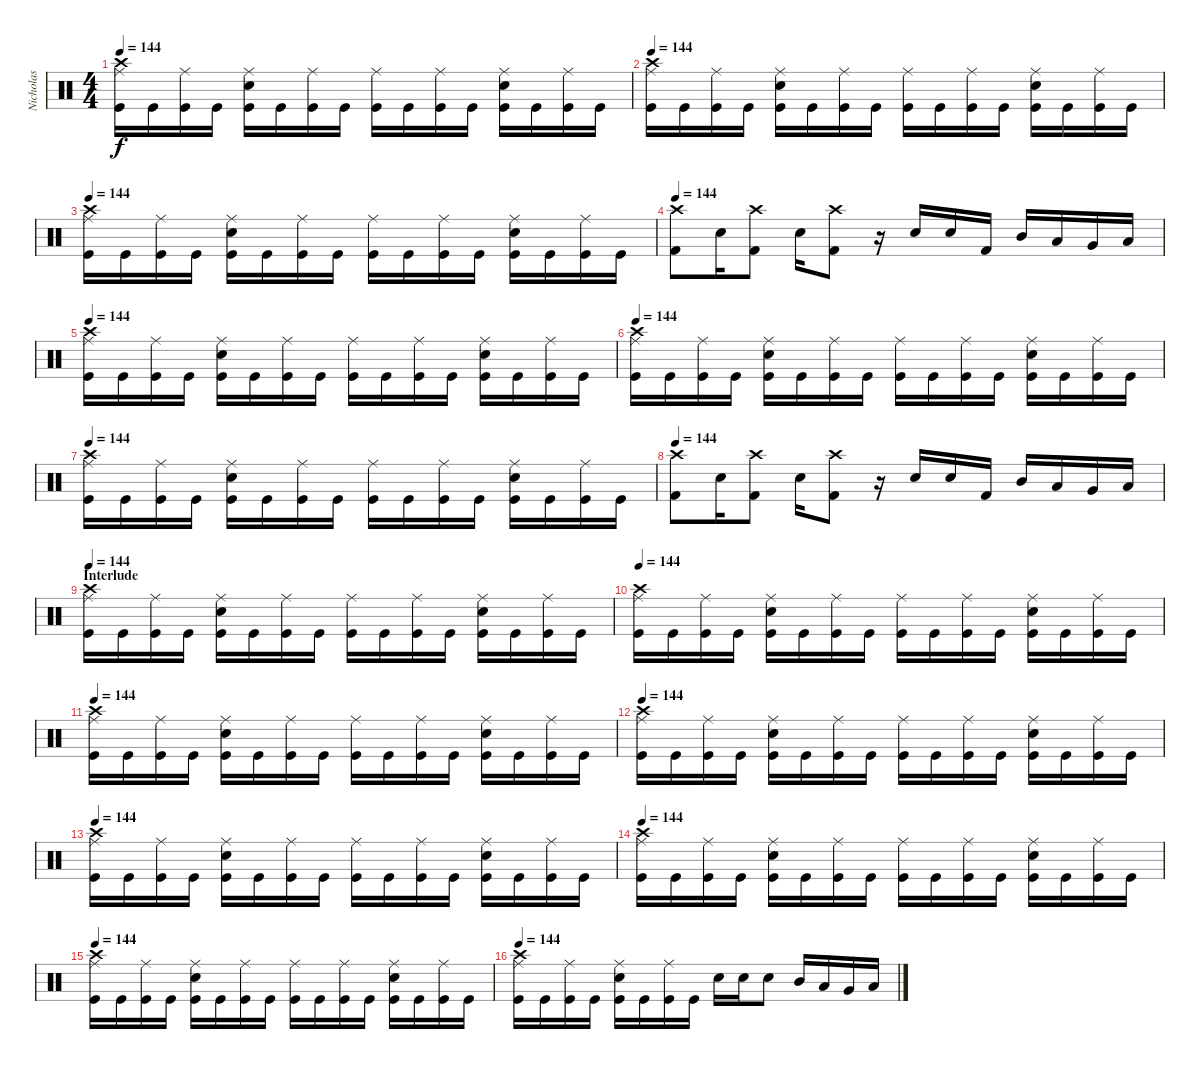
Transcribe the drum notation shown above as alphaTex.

\track ("Nicholas" "Nicholas") {instrument percussion}
\staff {score}
\articulation defaults
\ts (4 4)
\tempo 144
\clef neutral
\ks c
("Kick (hit)" "Ride (middle)" "Crash high (hit)").16{dy f} "Kick (hit)".16 ("Kick (hit)" "Ride (middle)").16 "Kick (hit)".16 ("Kick (hit)" "Snare (hit) 2" "Ride (middle)").16 "Kick (hit)".16 ("Kick (hit)" "Ride (middle)").16 "Kick (hit)".16 ("Kick (hit)" "Ride (middle)").16 "Kick (hit)".16 ("Kick (hit)" "Ride (middle)").16 "Kick (hit)".16 ("Kick (hit)" "Snare (hit) 2" "Ride (middle)").16 "Kick (hit)".16 ("Kick (hit)" "Ride (middle)").16 "Kick (hit)".16 |
\tempo 144
("Kick (hit)" "Ride (middle)" "Crash high (hit)").16 "Kick (hit)".16 ("Kick (hit)" "Ride (middle)").16 "Kick (hit)".16 ("Kick (hit)" "Snare (hit) 2" "Ride (middle)").16 "Kick (hit)".16 ("Kick (hit)" "Ride (middle)").16 "Kick (hit)".16 ("Kick (hit)" "Ride (middle)").16 "Kick (hit)".16 ("Kick (hit)" "Ride (middle)").16 "Kick (hit)".16 ("Kick (hit)" "Snare (hit) 2" "Ride (middle)").16 "Kick (hit)".16 ("Kick (hit)" "Ride (middle)").16 "Kick (hit)".16 |
\tempo 144
("Kick (hit)" "Ride (middle)" "Crash high (hit)").16 "Kick (hit)".16 ("Kick (hit)" "Ride (middle)").16 "Kick (hit)".16 ("Kick (hit)" "Snare (hit) 2" "Ride (middle)").16 "Kick (hit)".16 ("Kick (hit)" "Ride (middle)").16 "Kick (hit)".16 ("Kick (hit)" "Ride (middle)").16 "Kick (hit)".16 ("Kick (hit)" "Ride (middle)").16 "Kick (hit)".16 ("Kick (hit)" "Snare (hit) 2" "Ride (middle)").16 "Kick (hit)".16 ("Kick (hit)" "Ride (middle)").16 "Kick (hit)".16 |
\tempo 144
("Kick (hit) 2" "Crash high (hit)").8 "Snare (hit) 2".16 ("Kick (hit) 2" "Crash high (hit)").8 "Snare (hit) 2".16 ("Kick (hit) 2" "Crash high (hit)").8 r.16 "Snare (hit) 2".16 "Snare (hit) 2".16 "Kick (hit) 2".16 "Mid Tom (hit)".16 "Low Tom (hit)".16 "Very Low Tom (hit)".16 "Low Floor Tom (hit)".16 |
\tempo 144
("Kick (hit)" "Ride (middle)" "Crash high (hit)").16 "Kick (hit)".16 ("Kick (hit)" "Ride (middle)").16 "Kick (hit)".16 ("Kick (hit)" "Snare (hit) 2" "Ride (middle)").16 "Kick (hit)".16 ("Kick (hit)" "Ride (middle)").16 "Kick (hit)".16 ("Kick (hit)" "Ride (middle)").16 "Kick (hit)".16 ("Kick (hit)" "Ride (middle)").16 "Kick (hit)".16 ("Kick (hit)" "Snare (hit) 2" "Ride (middle)").16 "Kick (hit)".16 ("Kick (hit)" "Ride (middle)").16 "Kick (hit)".16 |
\tempo 144
("Kick (hit)" "Ride (middle)" "Crash high (hit)").16 "Kick (hit)".16 ("Kick (hit)" "Ride (middle)").16 "Kick (hit)".16 ("Kick (hit)" "Snare (hit) 2" "Ride (middle)").16 "Kick (hit)".16 ("Kick (hit)" "Ride (middle)").16 "Kick (hit)".16 ("Kick (hit)" "Ride (middle)").16 "Kick (hit)".16 ("Kick (hit)" "Ride (middle)").16 "Kick (hit)".16 ("Kick (hit)" "Snare (hit) 2" "Ride (middle)").16 "Kick (hit)".16 ("Kick (hit)" "Ride (middle)").16 "Kick (hit)".16 |
\tempo 144
("Kick (hit)" "Ride (middle)" "Crash high (hit)").16 "Kick (hit)".16 ("Kick (hit)" "Ride (middle)").16 "Kick (hit)".16 ("Kick (hit)" "Snare (hit) 2" "Ride (middle)").16 "Kick (hit)".16 ("Kick (hit)" "Ride (middle)").16 "Kick (hit)".16 ("Kick (hit)" "Ride (middle)").16 "Kick (hit)".16 ("Kick (hit)" "Ride (middle)").16 "Kick (hit)".16 ("Kick (hit)" "Snare (hit) 2" "Ride (middle)").16 "Kick (hit)".16 ("Kick (hit)" "Ride (middle)").16 "Kick (hit)".16 |
\tempo 144
("Kick (hit) 2" "Crash high (hit)").8 "Snare (hit) 2".16 ("Kick (hit) 2" "Crash high (hit)").8 "Snare (hit) 2".16 ("Kick (hit) 2" "Crash high (hit)").8 r.16 "Snare (hit) 2".16 "Snare (hit) 2".16 "Kick (hit) 2".16 "Mid Tom (hit)".16 "Low Tom (hit)".16 "Very Low Tom (hit)".16 "Low Floor Tom (hit)".16 |
\section ("" "Interlude")
\tempo 144
("Kick (hit)" "Ride (middle)" "Crash high (hit)").16 "Kick (hit)".16 ("Kick (hit)" "Ride (middle)").16 "Kick (hit)".16 ("Kick (hit)" "Snare (hit) 2" "Ride (middle)").16 "Kick (hit)".16 ("Kick (hit)" "Ride (middle)").16 "Kick (hit)".16 ("Kick (hit)" "Ride (middle)").16 "Kick (hit)".16 ("Kick (hit)" "Ride (middle)").16 "Kick (hit)".16 ("Kick (hit)" "Snare (hit) 2" "Ride (middle)").16 "Kick (hit)".16 ("Kick (hit)" "Ride (middle)").16 "Kick (hit)".16 |
\tempo 144
("Kick (hit)" "Ride (middle)" "Crash high (hit)").16 "Kick (hit)".16 ("Kick (hit)" "Ride (middle)").16 "Kick (hit)".16 ("Kick (hit)" "Snare (hit) 2" "Ride (middle)").16 "Kick (hit)".16 ("Kick (hit)" "Ride (middle)").16 "Kick (hit)".16 ("Kick (hit)" "Ride (middle)").16 "Kick (hit)".16 ("Kick (hit)" "Ride (middle)").16 "Kick (hit)".16 ("Kick (hit)" "Snare (hit) 2" "Ride (middle)").16 "Kick (hit)".16 ("Kick (hit)" "Ride (middle)").16 "Kick (hit)".16 |
\tempo 144
("Kick (hit)" "Ride (middle)" "Crash high (hit)").16 "Kick (hit)".16 ("Kick (hit)" "Ride (middle)").16 "Kick (hit)".16 ("Kick (hit)" "Snare (hit) 2" "Ride (middle)").16 "Kick (hit)".16 ("Kick (hit)" "Ride (middle)").16 "Kick (hit)".16 ("Kick (hit)" "Ride (middle)").16 "Kick (hit)".16 ("Kick (hit)" "Ride (middle)").16 "Kick (hit)".16 ("Kick (hit)" "Snare (hit) 2" "Ride (middle)").16 "Kick (hit)".16 ("Kick (hit)" "Ride (middle)").16 "Kick (hit)".16 |
\tempo 144
("Kick (hit)" "Ride (middle)" "Crash high (hit)").16 "Kick (hit)".16 ("Kick (hit)" "Ride (middle)").16 "Kick (hit)".16 ("Kick (hit)" "Snare (hit) 2" "Ride (middle)").16 "Kick (hit)".16 ("Kick (hit)" "Ride (middle)").16 "Kick (hit)".16 ("Kick (hit)" "Ride (middle)").16 "Kick (hit)".16 ("Kick (hit)" "Ride (middle)").16 "Kick (hit)".16 ("Kick (hit)" "Snare (hit) 2" "Ride (middle)").16 "Kick (hit)".16 ("Kick (hit)" "Ride (middle)").16 "Kick (hit)".16 |
\tempo 144
("Kick (hit)" "Ride (middle)" "Crash high (hit)").16 "Kick (hit)".16 ("Kick (hit)" "Ride (middle)").16 "Kick (hit)".16 ("Kick (hit)" "Snare (hit) 2" "Ride (middle)").16 "Kick (hit)".16 ("Kick (hit)" "Ride (middle)").16 "Kick (hit)".16 ("Kick (hit)" "Ride (middle)").16 "Kick (hit)".16 ("Kick (hit)" "Ride (middle)").16 "Kick (hit)".16 ("Kick (hit)" "Snare (hit) 2" "Ride (middle)").16 "Kick (hit)".16 ("Kick (hit)" "Ride (middle)").16 "Kick (hit)".16 |
\tempo 144
("Kick (hit)" "Ride (middle)" "Crash high (hit)").16 "Kick (hit)".16 ("Kick (hit)" "Ride (middle)").16 "Kick (hit)".16 ("Kick (hit)" "Snare (hit) 2" "Ride (middle)").16 "Kick (hit)".16 ("Kick (hit)" "Ride (middle)").16 "Kick (hit)".16 ("Kick (hit)" "Ride (middle)").16 "Kick (hit)".16 ("Kick (hit)" "Ride (middle)").16 "Kick (hit)".16 ("Kick (hit)" "Snare (hit) 2" "Ride (middle)").16 "Kick (hit)".16 ("Kick (hit)" "Ride (middle)").16 "Kick (hit)".16 |
\tempo 144
("Kick (hit)" "Ride (middle)" "Crash high (hit)").16 "Kick (hit)".16 ("Kick (hit)" "Ride (middle)").16 "Kick (hit)".16 ("Kick (hit)" "Snare (hit) 2" "Ride (middle)").16 "Kick (hit)".16 ("Kick (hit)" "Ride (middle)").16 "Kick (hit)".16 ("Kick (hit)" "Ride (middle)").16 "Kick (hit)".16 ("Kick (hit)" "Ride (middle)").16 "Kick (hit)".16 ("Kick (hit)" "Snare (hit) 2" "Ride (middle)").16 "Kick (hit)".16 ("Kick (hit)" "Ride (middle)").16 "Kick (hit)".16 |
\tempo 144
("Kick (hit)" "Ride (middle)" "Crash high (hit)").16 "Kick (hit)".16 ("Kick (hit)" "Ride (middle)").16 "Kick (hit)".16 ("Kick (hit)" "Snare (hit) 2" "Ride (middle)").16 "Kick (hit)".16 ("Kick (hit)" "Ride (middle)").16 "Kick (hit)".16 "Snare (hit) 2".16 "Snare (hit) 2".16 "Snare (hit) 2".8 "Mid Tom (hit)".16 "Low Tom (hit)".16 "Very Low Tom (hit)".16 "Low Floor Tom (hit)".16
